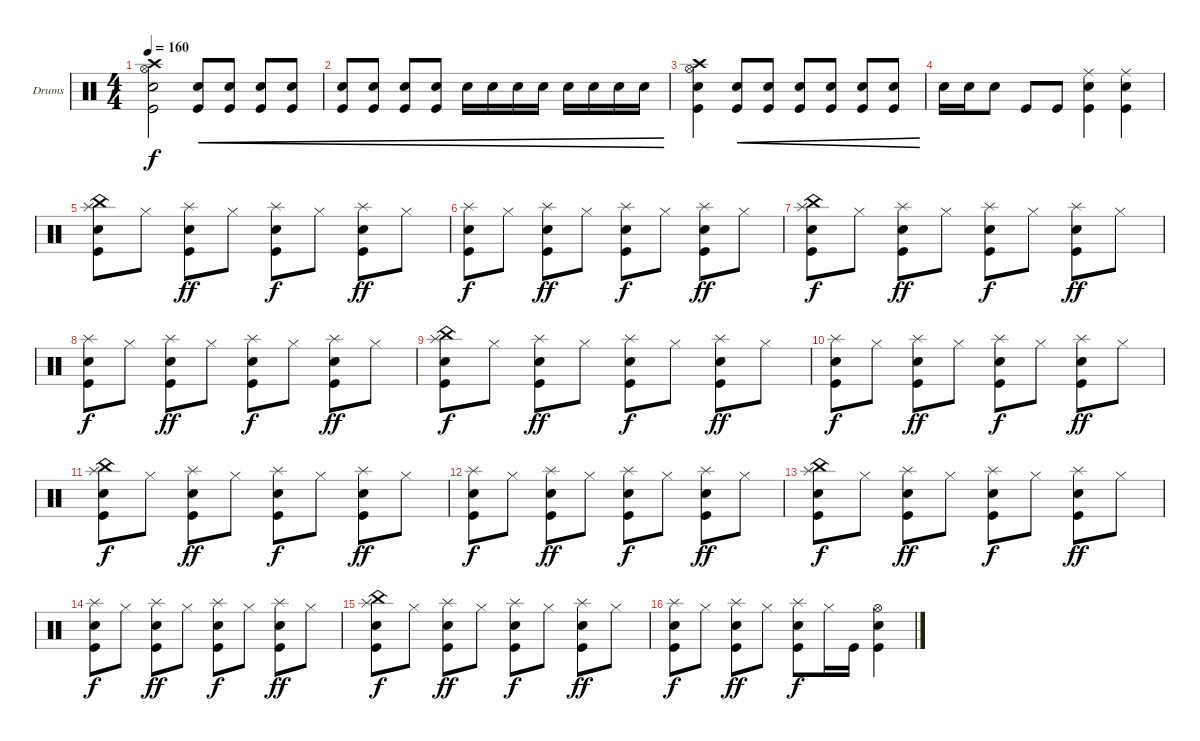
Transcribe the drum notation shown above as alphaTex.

\bracketExtendMode groupsimilarinstruments
\firstSystemTrackNameOrientation horizontal
\otherSystemsTrackNameOrientation horizontal
\track ("Drumkit" "Drums") {instrument percussion}
\staff {score}
\articulation defaults
\ts (4 4)
\tempo 160
\clef neutral
\ks c
("Crash high (hit)" "Snare (hit) 2" "Kick (hit)" "Hi-Hat (open)").2{dy f} ("Snare (hit) 2" "Kick (hit)").8{cre} ("Snare (hit) 2" "Kick (hit)").8{cre} ("Snare (hit) 2" "Kick (hit)").8{cre} ("Snare (hit) 2" "Kick (hit)").8{cre} |
("Snare (hit) 2" "Kick (hit)").8{cre} ("Snare (hit) 2" "Kick (hit)").8{cre} ("Snare (hit) 2" "Kick (hit)").8{cre} ("Snare (hit) 2" "Kick (hit)").8{cre} "Snare (hit) 2".16{cre} "Snare (hit) 2".16{cre} "Snare (hit) 2".16{cre} "Snare (hit) 2".16{cre} "Snare (hit) 2".16{cre} "Snare (hit) 2".16{cre} "Snare (hit) 2".16{cre} "Snare (hit) 2".16{cre} |
("Crash high (hit)" "Snare (hit) 2" "Kick (hit)" "Hi-Hat (open)").4 ("Snare (hit) 2" "Kick (hit)").8{cre} ("Snare (hit) 2" "Kick (hit)").8{cre} ("Snare (hit) 2" "Kick (hit)").8{cre} ("Snare (hit) 2" "Kick (hit)").8{cre} ("Snare (hit) 2" "Kick (hit)").8{cre} ("Snare (hit) 2" "Kick (hit)").8{cre} |
"Snare (hit) 2".16 "Snare (hit) 2".16 "Snare (hit) 2".8 "Kick (hit)".8 "Kick (hit)".8 ("Kick (hit)" "Snare (hit) 2" "Ride (middle)").4 ("Ride (middle)" "Snare (hit) 2" "Kick (hit)").4 |
("Kick (hit)" "Snare (hit) 2" "Splash (hit)" "China (hit)").8 "Hi-Hat (closed)".8 ("Kick (hit)" "Snare (hit) 2" "Splash (hit)").8{dy ff} "Hi-Hat (closed)".8 ("Kick (hit)" "Snare (hit) 2" "Splash (hit)").8{dy f} "Hi-Hat (closed)".8 ("Kick (hit)" "Snare (hit) 2" "Splash (hit)").8{dy ff} "Hi-Hat (closed)".8 |
("Kick (hit)" "Snare (hit) 2" "Splash (hit)").8{dy f} "Hi-Hat (closed)".8 ("Kick (hit)" "Snare (hit) 2" "Splash (hit)").8{dy ff} "Hi-Hat (closed)".8 ("Kick (hit)" "Snare (hit) 2" "Splash (hit)").8{dy f} "Hi-Hat (closed)".8 ("Kick (hit)" "Snare (hit) 2" "Splash (hit)").8{dy ff} "Hi-Hat (closed)".8 |
("Kick (hit)" "Snare (hit) 2" "Splash (hit)" "China (hit)").8{dy f} "Hi-Hat (closed)".8 ("Kick (hit)" "Snare (hit) 2" "Splash (hit)").8{dy ff} "Hi-Hat (closed)".8 ("Kick (hit)" "Snare (hit) 2" "Splash (hit)").8{dy f} "Hi-Hat (closed)".8 ("Kick (hit)" "Snare (hit) 2" "Splash (hit)").8{dy ff} "Hi-Hat (closed)".8 |
("Kick (hit)" "Snare (hit) 2" "Splash (hit)").8{dy f} "Hi-Hat (closed)".8 ("Kick (hit)" "Snare (hit) 2" "Splash (hit)").8{dy ff} "Hi-Hat (closed)".8 ("Kick (hit)" "Snare (hit) 2" "Splash (hit)").8{dy f} "Hi-Hat (closed)".8 ("Kick (hit)" "Snare (hit) 2" "Splash (hit)").8{dy ff} "Hi-Hat (closed)".8 |
("Kick (hit)" "Snare (hit) 2" "Splash (hit)" "China (hit)").8{dy f} "Hi-Hat (closed)".8 ("Kick (hit)" "Snare (hit) 2" "Splash (hit)").8{dy ff} "Hi-Hat (closed)".8 ("Kick (hit)" "Snare (hit) 2" "Splash (hit)").8{dy f} "Hi-Hat (closed)".8 ("Kick (hit)" "Snare (hit) 2" "Splash (hit)").8{dy ff} "Hi-Hat (closed)".8 |
("Kick (hit)" "Snare (hit) 2" "Splash (hit)").8{dy f} "Hi-Hat (closed)".8 ("Kick (hit)" "Snare (hit) 2" "Splash (hit)").8{dy ff} "Hi-Hat (closed)".8 ("Kick (hit)" "Snare (hit) 2" "Splash (hit)").8{dy f} "Hi-Hat (closed)".8 ("Kick (hit)" "Snare (hit) 2" "Splash (hit)").8{dy ff} "Hi-Hat (closed)".8 |
("Kick (hit)" "Snare (hit) 2" "Splash (hit)" "China (hit)").8{dy f} "Hi-Hat (closed)".8 ("Kick (hit)" "Snare (hit) 2" "Splash (hit)").8{dy ff} "Hi-Hat (closed)".8 ("Kick (hit)" "Snare (hit) 2" "Splash (hit)").8{dy f} "Hi-Hat (closed)".8 ("Kick (hit)" "Snare (hit) 2" "Splash (hit)").8{dy ff} "Hi-Hat (closed)".8 |
("Kick (hit)" "Snare (hit) 2" "Splash (hit)").8{dy f} "Hi-Hat (closed)".8 ("Kick (hit)" "Snare (hit) 2" "Splash (hit)").8{dy ff} "Hi-Hat (closed)".8 ("Kick (hit)" "Snare (hit) 2" "Splash (hit)").8{dy f} "Hi-Hat (closed)".8 ("Kick (hit)" "Snare (hit) 2" "Splash (hit)").8{dy ff} "Hi-Hat (closed)".8 |
("Kick (hit)" "Snare (hit) 2" "Splash (hit)" "China (hit)").8{dy f} "Hi-Hat (closed)".8 ("Kick (hit)" "Snare (hit) 2" "Splash (hit)").8{dy ff} "Hi-Hat (closed)".8 ("Kick (hit)" "Snare (hit) 2" "Splash (hit)").8{dy f} "Hi-Hat (closed)".8 ("Kick (hit)" "Snare (hit) 2" "Splash (hit)").8{dy ff} "Hi-Hat (closed)".8 |
("Kick (hit)" "Snare (hit) 2" "Splash (hit)").8{dy f} "Hi-Hat (closed)".8 ("Kick (hit)" "Snare (hit) 2" "Splash (hit)").8{dy ff} "Hi-Hat (closed)".8 ("Kick (hit)" "Snare (hit) 2" "Splash (hit)").8{dy f} "Hi-Hat (closed)".8 ("Kick (hit)" "Snare (hit) 2" "Splash (hit)").8{dy ff} "Hi-Hat (closed)".8 |
("Kick (hit)" "Snare (hit) 2" "Splash (hit)" "China (hit)").8{dy f} "Hi-Hat (closed)".8 ("Kick (hit)" "Snare (hit) 2" "Splash (hit)").8{dy ff} "Hi-Hat (closed)".8 ("Kick (hit)" "Snare (hit) 2" "Splash (hit)").8{dy f} "Hi-Hat (closed)".8 ("Kick (hit)" "Snare (hit) 2" "Splash (hit)").8{dy ff} "Hi-Hat (closed)".8 |
("Kick (hit)" "Snare (hit) 2" "Splash (hit)").8{dy f} "Hi-Hat (closed)".8 ("Kick (hit)" "Snare (hit) 2" "Splash (hit)").8{dy ff} "Hi-Hat (closed)".8 ("Kick (hit)" "Snare (hit) 2" "Splash (hit)").8{dy f} "Hi-Hat (closed)".16 "Kick (hit)".16 ("Kick (hit)" "Snare (hit) 2" "Hi-Hat (open)").4
